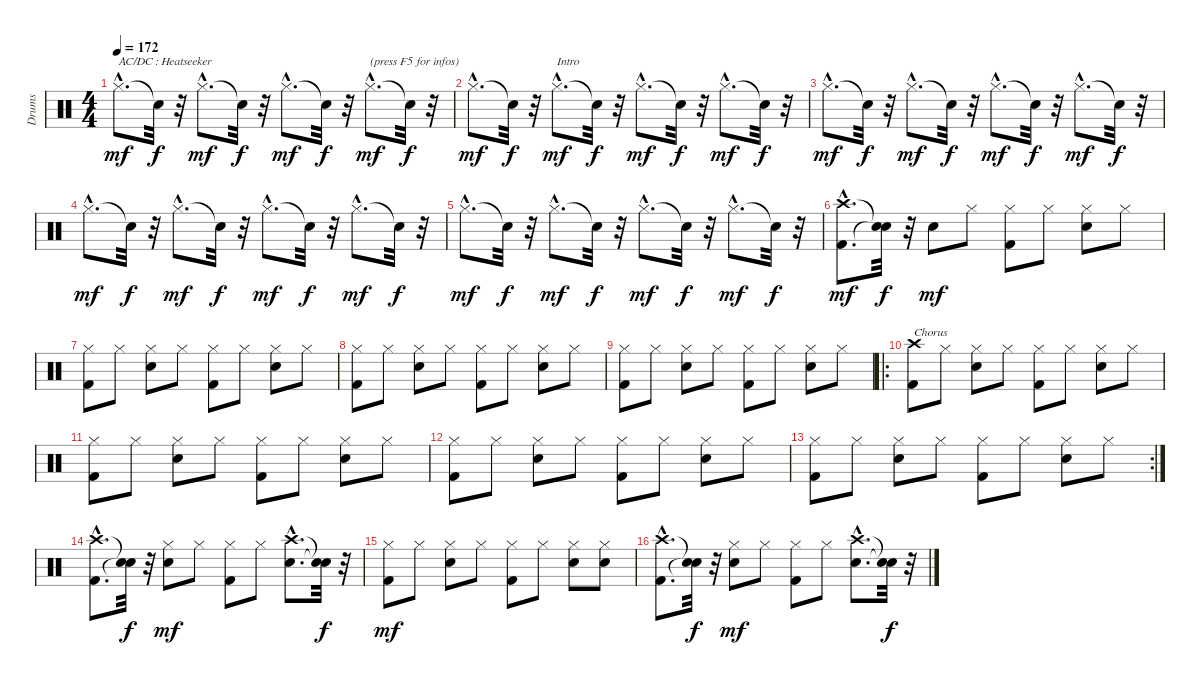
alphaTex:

\track ("Drums" "Drums") {instrument percussion}
\staff {score}
\articulation defaults
\ts (4 4)
\tempo 172
\clef neutral
\ks c "Hi-Hat (closed)"{hac}.8{d txt "AC/DC : Heatseeker" dy mf} "Snare (hit)"{t}.32{dy f}
r.32 "Hi-Hat (closed)"{hac}.8{d dy mf} "Snare (hit)"{t}.32{dy f} r.32 "Hi-Hat (closed)"{hac}.8{d dy mf} "Snare (hit)"{t}.32{dy f} r.32 "Hi-Hat (closed)"{hac}.8{d txt "(press F5 for infos)" dy mf} "Snare (hit)"{t}.32{dy f} r.32 |
"Hi-Hat (closed)"{hac}.8{d dy mf} "Snare (hit)"{t}.32{dy f} r.32 "Hi-Hat (closed)"{hac}.8{d txt "Intro" dy mf} "Snare (hit)"{t}.32{dy f} r.32 "Hi-Hat (closed)"{hac}.8{d dy mf} "Snare (hit)"{t}.32{dy f} r.32 "Hi-Hat (closed)"{hac}.8{d dy mf} "Snare (hit)"{t}.32{dy f} r.32 |
"Hi-Hat (closed)"{hac}.8{d dy mf} "Snare (hit)"{t}.32{dy f} r.32 "Hi-Hat (closed)"{hac}.8{d dy mf} "Snare (hit)"{t}.32{dy f} r.32 "Hi-Hat (closed)"{hac}.8{d dy mf} "Snare (hit)"{t}.32{dy f} r.32 "Hi-Hat (closed)"{hac}.8{d dy mf} "Snare (hit)"{t}.32{dy f} r.32 |
"Hi-Hat (closed)"{hac}.8{d dy mf} "Snare (hit)"{t}.32{dy f} r.32 "Hi-Hat (closed)"{hac}.8{d dy mf} "Snare (hit)"{t}.32{dy f} r.32 "Hi-Hat (closed)"{hac}.8{d dy mf} "Snare (hit)"{t}.32{dy f} r.32 "Hi-Hat (closed)"{hac}.8{d dy mf} "Snare (hit)"{t}.32{dy f} r.32 |
"Hi-Hat (closed)"{hac}.8{d dy mf} "Snare (hit)"{t}.32{dy f} r.32 "Hi-Hat (closed)"{hac}.8{d dy mf} "Snare (hit)"{t}.32{dy f} r.32 "Hi-Hat (closed)"{hac}.8{d dy mf} "Snare (hit)"{t}.32{dy f} r.32 "Hi-Hat (closed)"{hac}.8{d dy mf} "Snare (hit)"{t}.32{dy f} r.32 |
("Crash high (hit)"{hac} "Kick (hit) 2"{hac}).8{d dy mf} ("Snare (hit)"{t} "Snare (hit)"{t}).32{dy f} r.32 "Snare (hit) 2".8{dy mf} "Hi-Hat (closed)".8 ("Kick (hit) 2" "Hi-Hat (closed)").8 "Hi-Hat (closed)".8 ("Snare (hit) 2" "Hi-Hat (closed)").8 "Hi-Hat (closed)".8 |
("Hi-Hat (closed)" "Kick (hit) 2").8 "Hi-Hat (closed)".8 ("Hi-Hat (closed)" "Snare (hit) 2").8 "Hi-Hat (closed)".8 ("Hi-Hat (closed)" "Kick (hit) 2").8 "Hi-Hat (closed)".8 ("Hi-Hat (closed)" "Snare (hit) 2").8 "Hi-Hat (closed)".8 |
("Hi-Hat (closed)" "Kick (hit) 2").8 "Hi-Hat (closed)".8 ("Hi-Hat (closed)" "Snare (hit) 2").8 "Hi-Hat (closed)".8 ("Hi-Hat (closed)" "Kick (hit) 2").8 "Hi-Hat (closed)".8 ("Hi-Hat (closed)" "Snare (hit) 2").8 "Hi-Hat (closed)".8 |
("Hi-Hat (closed)" "Kick (hit) 2").8 "Hi-Hat (closed)".8 ("Hi-Hat (closed)" "Snare (hit) 2").8 "Hi-Hat (closed)".8 ("Hi-Hat (closed)" "Kick (hit) 2").8 "Hi-Hat (closed)".8 ("Hi-Hat (closed)" "Snare (hit) 2").8 "Hi-Hat (closed)".8 |
\ro
("Crash high (hit)" "Kick (hit) 2").8{txt "Chorus"} "Hi-Hat (closed)".8 ("Hi-Hat (closed)" "Snare (hit) 2").8 "Hi-Hat (closed)".8 ("Hi-Hat (closed)" "Kick (hit) 2").8 "Hi-Hat (closed)".8 ("Hi-Hat (closed)" "Snare (hit) 2").8 "Hi-Hat (closed)".8 |
("Hi-Hat (closed)" "Kick (hit) 2").8 "Hi-Hat (closed)".8 ("Hi-Hat (closed)" "Snare (hit) 2").8 "Hi-Hat (closed)".8 ("Hi-Hat (closed)" "Kick (hit) 2").8 "Hi-Hat (closed)".8 ("Hi-Hat (closed)" "Snare (hit) 2").8 "Hi-Hat (closed)".8 |
("Hi-Hat (closed)" "Kick (hit) 2").8 "Hi-Hat (closed)".8 ("Hi-Hat (closed)" "Snare (hit) 2").8 "Hi-Hat (closed)".8 ("Hi-Hat (closed)" "Kick (hit) 2").8 "Hi-Hat (closed)".8 ("Hi-Hat (closed)" "Snare (hit) 2").8 "Hi-Hat (closed)".8 |
\rc 2
("Hi-Hat (closed)" "Kick (hit) 2").8 "Hi-Hat (closed)".8 ("Hi-Hat (closed)" "Snare (hit) 2").8 "Hi-Hat (closed)".8 ("Hi-Hat (closed)" "Kick (hit) 2").8 "Hi-Hat (closed)".8 ("Hi-Hat (closed)" "Snare (hit) 2").8 "Hi-Hat (closed)".8 |
("Crash high (hit)"{hac} "Kick (hit) 2"{hac}).8{d} ("Snare (hit)"{t} "Snare (hit)"{t}).32{dy f} r.32 ("Hi-Hat (closed)" "Snare (hit) 2").8{dy mf} "Hi-Hat (closed)".8 ("Kick (hit) 2" "Hi-Hat (closed)").8 "Hi-Hat (closed)".8 ("Crash high (hit)"{hac} "Snare (hit) 2"{hac}).8{d} ("Snare (hit)"{t} "Snare (hit)"{t}).32{dy f} r.32 |
("Hi-Hat (closed)" "Kick (hit) 2").8{dy mf} "Hi-Hat (closed)".8 ("Hi-Hat (closed)" "Snare (hit) 2").8 "Hi-Hat (closed)".8 ("Hi-Hat (closed)" "Kick (hit) 2").8 "Hi-Hat (closed)".8 ("Hi-Hat (closed)" "Snare (hit) 2").8 ("Hi-Hat (closed)" "Snare (hit) 2").8 |
("Kick (hit) 2"{hac} "Crash high (hit)"{hac}).8{d} ("Snare (hit)"{t} "Snare (hit)"{t}).32{dy f} r.32 ("Snare (hit) 2" "Hi-Hat (closed)").8{dy mf} "Hi-Hat (closed)".8 ("Hi-Hat (closed)" "Kick (hit) 2").8 "Hi-Hat (closed)".8 ("Snare (hit) 2"{hac} "Crash high (hit)"{hac}).8{d} ("Snare (hit)"{t} "Snare (hit)"{t}).32{dy f} r.32
